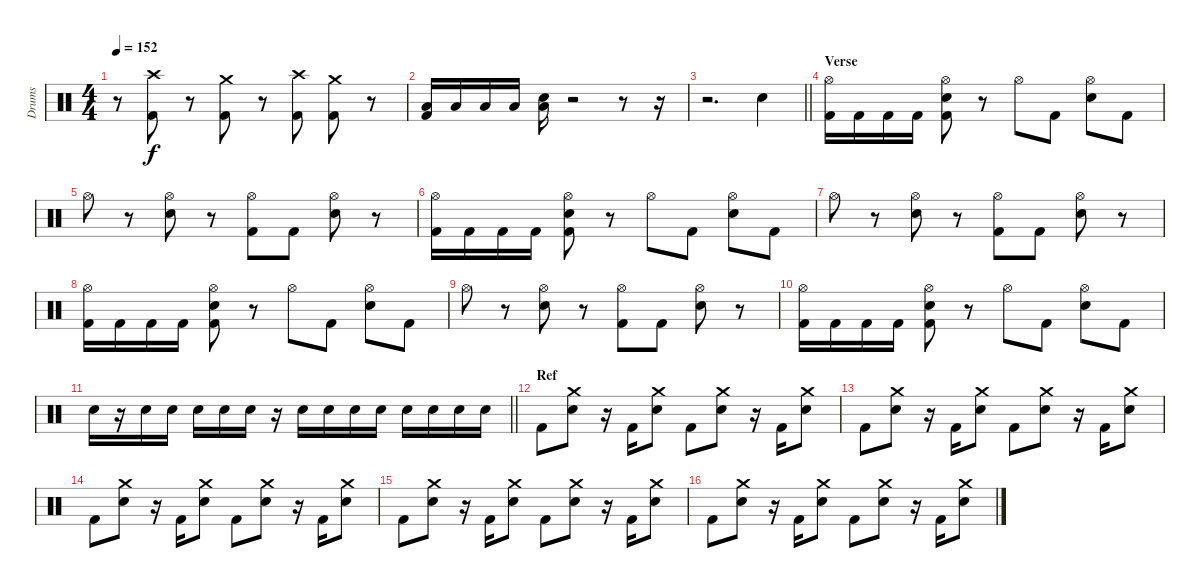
\track ("Drums" "Drums") {instrument percussion}
\staff
\articulation defaults
\ts (4 4)
\tempo 152
\clef neutral
\ks c
r.8{dy f} ("Crash high (hit)" "Kick (hit) 2").8 r.8 ("Crash medium (hit)" "Kick (hit) 2").8 r.8 ("Crash high (hit)" "Kick (hit) 2").8 ("Crash medium (hit)" "Kick (hit) 2").8 r.8 |
("Low Tom (hit)" "Kick (hit) 2").16 "Low Tom (hit)".16 "Low Tom (hit)".16 "Low Tom (hit)".16 ("Electric Snare (hit)" "Low Tom (hit)").16 r.2 r.8 r.16 |
\barLineRight lightlight
r.2{d} "Electric Snare (hit)".4 |
\section ("" "Verse")
("Hi-Hat (open)" "Kick (hit) 2").16 "Kick (hit) 2".16 "Kick (hit) 2".16 "Kick (hit) 2".16 ("Hi-Hat (open)" "Electric Snare (hit)" "Kick (hit) 2").8 r.8 "Hi-Hat (open)".8 "Kick (hit) 2".8 ("Hi-Hat (open)" "Electric Snare (hit)").8 "Kick (hit) 2".8 |
"Hi-Hat (open)".8 r.8 ("Hi-Hat (open)" "Electric Snare (hit)").8 r.8 ("Hi-Hat (open)" "Kick (hit) 2").8 "Kick (hit) 2".8 ("Hi-Hat (open)" "Electric Snare (hit)").8 r.8 |
("Hi-Hat (open)" "Kick (hit) 2").16 "Kick (hit) 2".16 "Kick (hit) 2".16 "Kick (hit) 2".16 ("Hi-Hat (open)" "Electric Snare (hit)" "Kick (hit) 2").8 r.8 "Hi-Hat (open)".8 "Kick (hit) 2".8 ("Hi-Hat (open)" "Electric Snare (hit)").8 "Kick (hit) 2".8 |
"Hi-Hat (open)".8 r.8 ("Hi-Hat (open)" "Electric Snare (hit)").8 r.8 ("Hi-Hat (open)" "Kick (hit) 2").8 "Kick (hit) 2".8 ("Hi-Hat (open)" "Electric Snare (hit)").8 r.8 |
("Hi-Hat (open)" "Kick (hit) 2").16 "Kick (hit) 2".16 "Kick (hit) 2".16 "Kick (hit) 2".16 ("Hi-Hat (open)" "Electric Snare (hit)" "Kick (hit) 2").8 r.8 "Hi-Hat (open)".8 "Kick (hit) 2".8 ("Hi-Hat (open)" "Electric Snare (hit)").8 "Kick (hit) 2".8 |
"Hi-Hat (open)".8 r.8 ("Hi-Hat (open)" "Electric Snare (hit)").8 r.8 ("Hi-Hat (open)" "Kick (hit) 2").8 "Kick (hit) 2".8 ("Hi-Hat (open)" "Electric Snare (hit)").8 r.8 |
("Hi-Hat (open)" "Kick (hit) 2").16 "Kick (hit) 2".16 "Kick (hit) 2".16 "Kick (hit) 2".16 ("Hi-Hat (open)" "Electric Snare (hit)" "Kick (hit) 2").8 r.8 "Hi-Hat (open)".8 "Kick (hit) 2".8 ("Hi-Hat (open)" "Electric Snare (hit)").8 "Kick (hit) 2".8 |
\barLineRight lightlight "Electric Snare (hit)".16
r.16 "Electric Snare (hit)".16 "Electric Snare (hit)".16 "Electric Snare (hit)".16 "Electric Snare (hit)".16 "Electric Snare (hit)".16 r.16 "Electric Snare (hit)".16 "Electric Snare (hit)".16 "Electric Snare (hit)".16 "Electric Snare (hit)".16 "Electric Snare (hit)".16 "Electric Snare (hit)".16 "Electric Snare (hit)".16 "Electric Snare (hit)".16 |
\section ("" "Ref")
"Kick (hit) 2".8 ("Crash medium (hit)" "Electric Snare (hit)").8 r.16 "Kick (hit) 2".16 ("Crash medium (hit)" "Electric Snare (hit)").8 "Kick (hit) 2".8 ("Crash medium (hit)" "Electric Snare (hit)").8 r.16 "Kick (hit) 2".16 ("Crash medium (hit)" "Electric Snare (hit)").8 |
"Kick (hit) 2".8 ("Crash medium (hit)" "Electric Snare (hit)").8 r.16 "Kick (hit) 2".16 ("Crash medium (hit)" "Electric Snare (hit)").8 "Kick (hit) 2".8 ("Crash medium (hit)" "Electric Snare (hit)").8 r.16 "Kick (hit) 2".16 ("Crash medium (hit)" "Electric Snare (hit)").8 |
"Kick (hit) 2".8 ("Crash medium (hit)" "Electric Snare (hit)").8 r.16 "Kick (hit) 2".16 ("Crash medium (hit)" "Electric Snare (hit)").8 "Kick (hit) 2".8 ("Crash medium (hit)" "Electric Snare (hit)").8 r.16 "Kick (hit) 2".16 ("Crash medium (hit)" "Electric Snare (hit)").8 |
"Kick (hit) 2".8 ("Crash medium (hit)" "Electric Snare (hit)").8 r.16 "Kick (hit) 2".16 ("Crash medium (hit)" "Electric Snare (hit)").8 "Kick (hit) 2".8 ("Crash medium (hit)" "Electric Snare (hit)").8 r.16 "Kick (hit) 2".16 ("Crash medium (hit)" "Electric Snare (hit)").8 |
"Kick (hit) 2".8 ("Crash medium (hit)" "Electric Snare (hit)").8 r.16 "Kick (hit) 2".16 ("Crash medium (hit)" "Electric Snare (hit)").8 "Kick (hit) 2".8 ("Crash medium (hit)" "Electric Snare (hit)").8 r.16 "Kick (hit) 2".16 ("Crash medium (hit)" "Electric Snare (hit)").8
